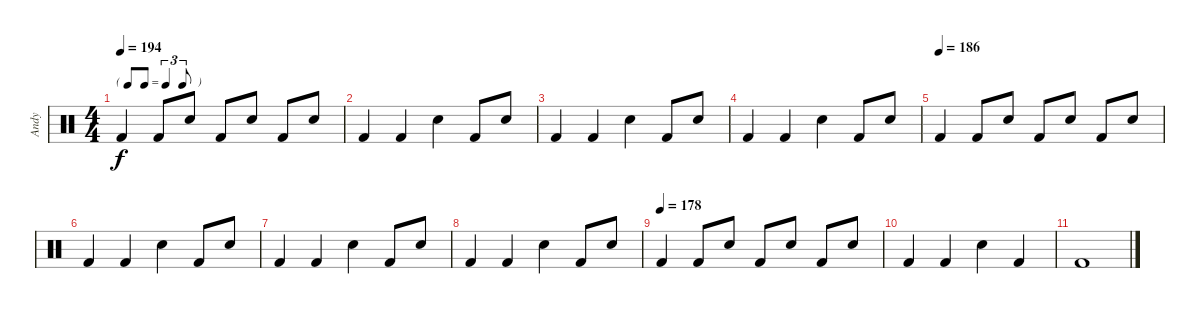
\track ("Andy" "Andy") {instrument percussion}
\staff {score}
\articulation defaults
\ts (4 4)
\tf triplet8th
\tempo 194
\clef neutral
\ks c "Kick (hit) 2".4{dy f} "Kick (hit) 2".8 "Electric Snare (hit)".8 "Kick (hit) 2".8 "Electric Snare (hit)".8 "Kick (hit) 2".8 "Electric Snare (hit)".8
|
"Kick (hit) 2".4 "Kick (hit) 2".4 "Electric Snare (hit)".4 "Kick (hit) 2".8 "Electric Snare (hit)".8 |
"Kick (hit) 2".4 "Kick (hit) 2".4 "Electric Snare (hit)".4 "Kick (hit) 2".8 "Electric Snare (hit)".8 |
"Kick (hit) 2".4 "Kick (hit) 2".4 "Electric Snare (hit)".4 "Kick (hit) 2".8 "Electric Snare (hit)".8 |
\tempo 170
\tempo (186)
"Kick (hit) 2".4 "Kick (hit) 2".8 "Electric Snare (hit)".8 "Kick (hit) 2".8 "Electric Snare (hit)".8 "Kick (hit) 2".8 "Electric Snare (hit)".8 |
"Kick (hit) 2".4 "Kick (hit) 2".4 "Electric Snare (hit)".4 "Kick (hit) 2".8 "Electric Snare (hit)".8 |
"Kick (hit) 2".4 "Kick (hit) 2".4 "Electric Snare (hit)".4 "Kick (hit) 2".8 "Electric Snare (hit)".8 |
"Kick (hit) 2".4{volume 8} "Kick (hit) 2".4 "Electric Snare (hit)".4 "Kick (hit) 2".8 "Electric Snare (hit)".8 |
\tempo (178)
"Kick (hit) 2".4 "Kick (hit) 2".8 "Electric Snare (hit)".8 "Kick (hit) 2".8 "Electric Snare (hit)".8 "Kick (hit) 2".8 "Electric Snare (hit)".8 |
"Kick (hit) 2".4 "Kick (hit) 2".4 "Electric Snare (hit)".4 "Kick (hit) 2".4 |
"Kick (hit) 2".1
